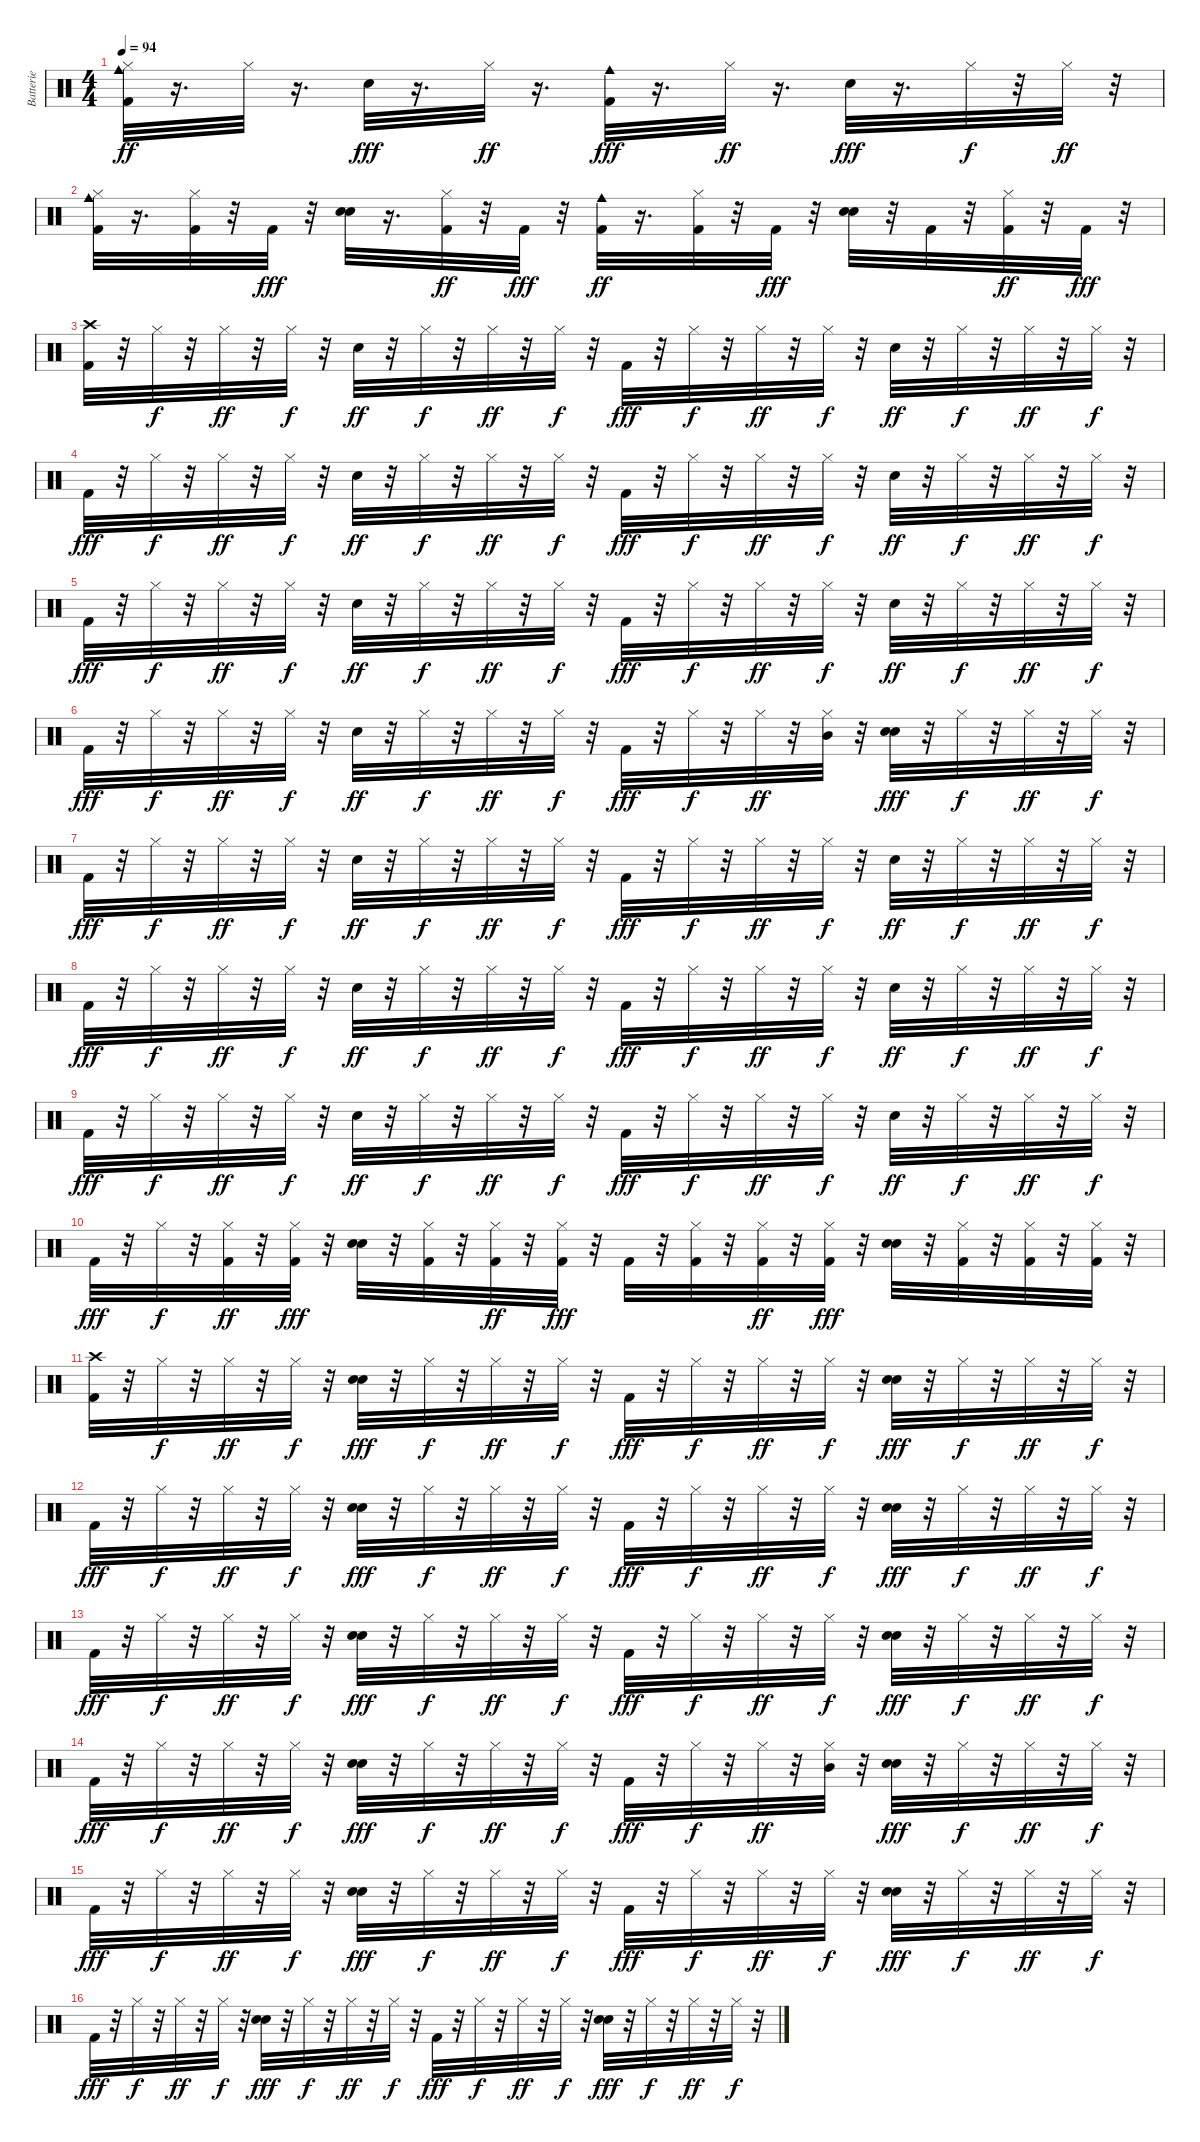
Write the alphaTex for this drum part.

\track ("Batterie" "Batterie") {instrument percussion}
\staff {score}
\articulation defaults
\ts (4 4)
\tempo 94
\clef neutral
\ks c
("Kick (hit) 2" "Hi-Hat (closed)" "Cowbell medium (hit)").32{dy ff} r.16{d} "Hi-Hat (closed)".32 r.16{d} "Hand Clap (hit)".32{dy fff} r.16{d} "Hi-Hat (closed)".32{dy ff} r.16{d} ("Cowbell medium (hit)" "Kick (hit) 2").32{dy fff} r.16{d} "Hi-Hat (closed)".32{dy ff} r.16{d} "Hand Clap (hit)".32{dy fff} r.16{d} "Hi-Hat (closed)".32{dy f} r.32 "Hi-Hat (closed)".32{dy ff} r.32 |
("Kick (hit) 2" "Hi-Hat (closed)" "Cowbell medium (hit)").32 r.16{d} ("Kick (hit) 2" "Hi-Hat (closed)").32 r.32 "Kick (hit) 2".32{dy fff} r.32 ("Electric Snare (hit)" "Hand Clap (hit)").32 r.16{d} ("Kick (hit) 2" "Hi-Hat (closed)").32{dy ff} r.32 "Kick (hit) 2".32{dy fff} r.32 ("Kick (hit) 2" "Cowbell medium (hit)").32{dy ff} r.16{d} ("Kick (hit) 2" "Hi-Hat (closed)").32 r.32 "Kick (hit) 2".32{dy fff} r.32 ("Electric Snare (hit)" "Hand Clap (hit)").32 r.32 "Kick (hit) 2".32 r.32 ("Kick (hit) 2" "Hi-Hat (closed)").32{dy ff} r.32 "Kick (hit) 2".32{dy fff} r.32 |
("Kick (hit) 2" "Crash high (hit)").32 r.32 "Hi-Hat (closed)".32{dy f} r.32 "Hi-Hat (closed)".32{dy ff} r.32 "Hi-Hat (closed)".32{dy f} r.32 "Electric Snare (hit)".32{dy ff} r.32 "Hi-Hat (closed)".32{dy f} r.32 "Hi-Hat (closed)".32{dy ff} r.32 "Hi-Hat (closed)".32{dy f} r.32 "Kick (hit) 2".32{dy fff} r.32 "Hi-Hat (closed)".32{dy f} r.32 "Hi-Hat (closed)".32{dy ff} r.32 "Hi-Hat (closed)".32{dy f} r.32 "Electric Snare (hit)".32{dy ff} r.32 "Hi-Hat (closed)".32{dy f} r.32 "Hi-Hat (closed)".32{dy ff} r.32 "Hi-Hat (closed)".32{dy f} r.32 |
"Kick (hit) 2".32{dy fff} r.32 "Hi-Hat (closed)".32{dy f} r.32 "Hi-Hat (closed)".32{dy ff} r.32 "Hi-Hat (closed)".32{dy f} r.32 "Electric Snare (hit)".32{dy ff} r.32 "Hi-Hat (closed)".32{dy f} r.32 "Hi-Hat (closed)".32{dy ff} r.32 "Hi-Hat (closed)".32{dy f} r.32 "Kick (hit) 2".32{dy fff} r.32 "Hi-Hat (closed)".32{dy f} r.32 "Hi-Hat (closed)".32{dy ff} r.32 "Hi-Hat (closed)".32{dy f} r.32 "Electric Snare (hit)".32{dy ff} r.32 "Hi-Hat (closed)".32{dy f} r.32 "Hi-Hat (closed)".32{dy ff} r.32 "Hi-Hat (closed)".32{dy f} r.32 |
"Kick (hit) 2".32{dy fff} r.32 "Hi-Hat (closed)".32{dy f} r.32 "Hi-Hat (closed)".32{dy ff} r.32 "Hi-Hat (closed)".32{dy f} r.32 "Electric Snare (hit)".32{dy ff} r.32 "Hi-Hat (closed)".32{dy f} r.32 "Hi-Hat (closed)".32{dy ff} r.32 "Hi-Hat (closed)".32{dy f} r.32 "Kick (hit) 2".32{dy fff} r.32 "Hi-Hat (closed)".32{dy f} r.32 "Hi-Hat (closed)".32{dy ff} r.32 "Hi-Hat (closed)".32{dy f} r.32 "Electric Snare (hit)".32{dy ff} r.32 "Hi-Hat (closed)".32{dy f} r.32 "Hi-Hat (closed)".32{dy ff} r.32 "Hi-Hat (closed)".32{dy f} r.32 |
"Kick (hit) 2".32{dy fff} r.32 "Hi-Hat (closed)".32{dy f} r.32 "Hi-Hat (closed)".32{dy ff} r.32 "Hi-Hat (closed)".32{dy f} r.32 "Electric Snare (hit)".32{dy ff} r.32 "Hi-Hat (closed)".32{dy f} r.32 "Hi-Hat (closed)".32{dy ff} r.32 "Hi-Hat (closed)".32{dy f} r.32 "Kick (hit) 2".32{dy fff} r.32 "Hi-Hat (closed)".32{dy f} r.32 "Hi-Hat (closed)".32{dy ff} r.32 ("Hi-Hat (closed)" "Mid Tom (hit)").32 r.32 ("Electric Snare (hit)" "Hand Clap (hit)").32{dy fff} r.32 "Hi-Hat (closed)".32{dy f} r.32 "Hi-Hat (closed)".32{dy ff} r.32 "Hi-Hat (closed)".32{dy f} r.32 |
"Kick (hit) 2".32{dy fff} r.32 "Hi-Hat (closed)".32{dy f} r.32 "Hi-Hat (closed)".32{dy ff} r.32 "Hi-Hat (closed)".32{dy f} r.32 "Electric Snare (hit)".32{dy ff} r.32 "Hi-Hat (closed)".32{dy f} r.32 "Hi-Hat (closed)".32{dy ff} r.32 "Hi-Hat (closed)".32{dy f} r.32 "Kick (hit) 2".32{dy fff} r.32 "Hi-Hat (closed)".32{dy f} r.32 "Hi-Hat (closed)".32{dy ff} r.32 "Hi-Hat (closed)".32{dy f} r.32 "Electric Snare (hit)".32{dy ff} r.32 "Hi-Hat (closed)".32{dy f} r.32 "Hi-Hat (closed)".32{dy ff} r.32 "Hi-Hat (closed)".32{dy f} r.32 |
"Kick (hit) 2".32{dy fff} r.32 "Hi-Hat (closed)".32{dy f} r.32 "Hi-Hat (closed)".32{dy ff} r.32 "Hi-Hat (closed)".32{dy f} r.32 "Electric Snare (hit)".32{dy ff} r.32 "Hi-Hat (closed)".32{dy f} r.32 "Hi-Hat (closed)".32{dy ff} r.32 "Hi-Hat (closed)".32{dy f} r.32 "Kick (hit) 2".32{dy fff} r.32 "Hi-Hat (closed)".32{dy f} r.32 "Hi-Hat (closed)".32{dy ff} r.32 "Hi-Hat (closed)".32{dy f} r.32 "Electric Snare (hit)".32{dy ff} r.32 "Hi-Hat (closed)".32{dy f} r.32 "Hi-Hat (closed)".32{dy ff} r.32 "Hi-Hat (closed)".32{dy f} r.32 |
"Kick (hit) 2".32{dy fff} r.32 "Hi-Hat (closed)".32{dy f} r.32 "Hi-Hat (closed)".32{dy ff} r.32 "Hi-Hat (closed)".32{dy f} r.32 "Electric Snare (hit)".32{dy ff} r.32 "Hi-Hat (closed)".32{dy f} r.32 "Hi-Hat (closed)".32{dy ff} r.32 "Hi-Hat (closed)".32{dy f} r.32 "Kick (hit) 2".32{dy fff} r.32 "Hi-Hat (closed)".32{dy f} r.32 "Hi-Hat (closed)".32{dy ff} r.32 "Hi-Hat (closed)".32{dy f} r.32 "Electric Snare (hit)".32{dy ff} r.32 "Hi-Hat (closed)".32{dy f} r.32 "Hi-Hat (closed)".32{dy ff} r.32 "Hi-Hat (closed)".32{dy f} r.32 |
"Kick (hit) 2".32{dy fff} r.32 "Hi-Hat (closed)".32{dy f} r.32 ("Kick (hit) 2" "Hi-Hat (closed)").32{dy ff} r.32 ("Kick (hit) 2" "Hi-Hat (closed)").32{dy fff} r.32 ("Electric Snare (hit)" "Hand Clap (hit)").32 r.32 ("Kick (hit) 2" "Hi-Hat (closed)").32 r.32 ("Kick (hit) 2" "Hi-Hat (closed)").32{dy ff} r.32 ("Kick (hit) 2" "Hi-Hat (closed)").32{dy fff} r.32 "Kick (hit) 2".32 r.32 ("Kick (hit) 2" "Hi-Hat (closed)").32 r.32 ("Kick (hit) 2" "Hi-Hat (closed)").32{dy ff} r.32 ("Kick (hit) 2" "Hi-Hat (closed)").32{dy fff} r.32 ("Electric Snare (hit)" "Hand Clap (hit)").32 r.32 ("Kick (hit) 2" "Hi-Hat (closed)").32 r.32 ("Hi-Hat (closed)" "Kick (hit) 2").32 r.32 ("Kick (hit) 2" "Hi-Hat (closed)").32 r.32 |
("Kick (hit) 2" "Crash high (hit)").32 r.32 "Hi-Hat (closed)".32{dy f} r.32 "Hi-Hat (closed)".32{dy ff} r.32 "Hi-Hat (closed)".32{dy f} r.32 ("Electric Snare (hit)" "Hand Clap (hit)").32{dy fff} r.32 "Hi-Hat (closed)".32{dy f} r.32 "Hi-Hat (closed)".32{dy ff} r.32 "Hi-Hat (closed)".32{dy f} r.32 "Kick (hit) 2".32{dy fff} r.32 "Hi-Hat (closed)".32{dy f} r.32 "Hi-Hat (closed)".32{dy ff} r.32 "Hi-Hat (closed)".32{dy f} r.32 ("Electric Snare (hit)" "Hand Clap (hit)").32{dy fff} r.32 "Hi-Hat (closed)".32{dy f} r.32 "Hi-Hat (closed)".32{dy ff} r.32 "Hi-Hat (closed)".32{dy f} r.32 |
"Kick (hit) 2".32{dy fff} r.32 "Hi-Hat (closed)".32{dy f} r.32 "Hi-Hat (closed)".32{dy ff} r.32 "Hi-Hat (closed)".32{dy f} r.32 ("Electric Snare (hit)" "Hand Clap (hit)").32{dy fff} r.32 "Hi-Hat (closed)".32{dy f} r.32 "Hi-Hat (closed)".32{dy ff} r.32 "Hi-Hat (closed)".32{dy f} r.32 "Kick (hit) 2".32{dy fff} r.32 "Hi-Hat (closed)".32{dy f} r.32 "Hi-Hat (closed)".32{dy ff} r.32 "Hi-Hat (closed)".32{dy f} r.32 ("Electric Snare (hit)" "Hand Clap (hit)").32{dy fff} r.32 "Hi-Hat (closed)".32{dy f} r.32 "Hi-Hat (closed)".32{dy ff} r.32 "Hi-Hat (closed)".32{dy f} r.32 |
"Kick (hit) 2".32{dy fff} r.32 "Hi-Hat (closed)".32{dy f} r.32 "Hi-Hat (closed)".32{dy ff} r.32 "Hi-Hat (closed)".32{dy f} r.32 ("Electric Snare (hit)" "Hand Clap (hit)").32{dy fff} r.32 "Hi-Hat (closed)".32{dy f} r.32 "Hi-Hat (closed)".32{dy ff} r.32 "Hi-Hat (closed)".32{dy f} r.32 "Kick (hit) 2".32{dy fff} r.32 "Hi-Hat (closed)".32{dy f} r.32 "Hi-Hat (closed)".32{dy ff} r.32 "Hi-Hat (closed)".32{dy f} r.32 ("Electric Snare (hit)" "Hand Clap (hit)").32{dy fff} r.32 "Hi-Hat (closed)".32{dy f} r.32 "Hi-Hat (closed)".32{dy ff} r.32 "Hi-Hat (closed)".32{dy f} r.32 |
"Kick (hit) 2".32{dy fff} r.32 "Hi-Hat (closed)".32{dy f} r.32 "Hi-Hat (closed)".32{dy ff} r.32 "Hi-Hat (closed)".32{dy f} r.32 ("Electric Snare (hit)" "Hand Clap (hit)").32{dy fff} r.32 "Hi-Hat (closed)".32{dy f} r.32 "Hi-Hat (closed)".32{dy ff} r.32 "Hi-Hat (closed)".32{dy f} r.32 "Kick (hit) 2".32{dy fff} r.32 "Hi-Hat (closed)".32{dy f} r.32 "Hi-Hat (closed)".32{dy ff} r.32 ("Hi-Hat (closed)" "Mid Tom (hit)").32 r.32 ("Electric Snare (hit)" "Hand Clap (hit)").32{dy fff} r.32 "Hi-Hat (closed)".32{dy f} r.32 "Hi-Hat (closed)".32{dy ff} r.32 "Hi-Hat (closed)".32{dy f} r.32 |
"Kick (hit) 2".32{dy fff} r.32 "Hi-Hat (closed)".32{dy f} r.32 "Hi-Hat (closed)".32{dy ff} r.32 "Hi-Hat (closed)".32{dy f} r.32 ("Electric Snare (hit)" "Hand Clap (hit)").32{dy fff} r.32 "Hi-Hat (closed)".32{dy f} r.32 "Hi-Hat (closed)".32{dy ff} r.32 "Hi-Hat (closed)".32{dy f} r.32 "Kick (hit) 2".32{dy fff} r.32 "Hi-Hat (closed)".32{dy f} r.32 "Hi-Hat (closed)".32{dy ff} r.32 "Hi-Hat (closed)".32{dy f} r.32 ("Electric Snare (hit)" "Hand Clap (hit)").32{dy fff} r.32 "Hi-Hat (closed)".32{dy f} r.32 "Hi-Hat (closed)".32{dy ff} r.32 "Hi-Hat (closed)".32{dy f} r.32 |
"Kick (hit) 2".32{dy fff} r.32 "Hi-Hat (closed)".32{dy f} r.32 "Hi-Hat (closed)".32{dy ff} r.32 "Hi-Hat (closed)".32{dy f} r.32 ("Electric Snare (hit)" "Hand Clap (hit)").32{dy fff} r.32 "Hi-Hat (closed)".32{dy f} r.32 "Hi-Hat (closed)".32{dy ff} r.32 "Hi-Hat (closed)".32{dy f} r.32 "Kick (hit) 2".32{dy fff} r.32 "Hi-Hat (closed)".32{dy f} r.32 "Hi-Hat (closed)".32{dy ff} r.32 "Hi-Hat (closed)".32{dy f} r.32 ("Electric Snare (hit)" "Hand Clap (hit)").32{dy fff} r.32 "Hi-Hat (closed)".32{dy f} r.32 "Hi-Hat (closed)".32{dy ff} r.32 "Hi-Hat (closed)".32{dy f} r.32
